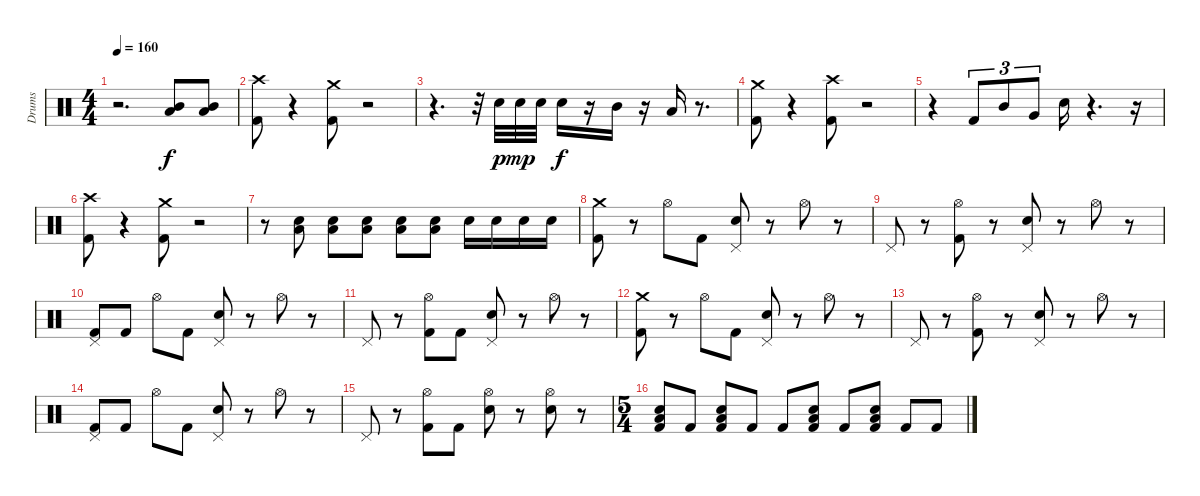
\track ("Drums" "Drums") {instrument percussion}
\staff {score}
\articulation defaults
\ts (4 4)
\tempo 160
\clef neutral
\ks c
r.2{d dy f} ("Mid Tom (hit)" "Low Floor Tom (hit)").8 ("Mid Tom (hit)" "Low Floor Tom (hit)").8 |
("Crash high (hit)" "Kick (hit) 2").8 r.4 ("Crash medium (hit)" "Kick (hit) 2").8 r.2 |
r.4{d} r.32 "Electric Snare (hit)".32{dy p} "Electric Snare (hit)".32{dy mp} "Electric Snare (hit)".32 "Electric Snare (hit)".16{dy f} r.16 "Mid Tom (hit)".16 r.16 "Low Tom (hit)".16 r.8{d} |
("Crash medium (hit)" "Kick (hit) 2").8 r.4 ("Crash high (hit)" "Kick (hit) 2").8 r.2 |
r.4 "Kick (hit) 2".8{tu (3 2)} "Mid Tom (hit)".8{tu (3 2)} "Very Low Tom (hit)".8{tu (3 2)} "Electric Snare (hit)".16 r.4{d} r.16 |
("Crash high (hit)" "Kick (hit) 2").8 r.4 ("Crash medium (hit)" "Kick (hit) 2").8 r.2 |
r.8 ("Low Tom (hit)" "Electric Snare (hit)").8{volume 6} ("Low Tom (hit)" "Electric Snare (hit)").8{volume 8} ("Low Tom (hit)" "Electric Snare (hit)").8{volume 9} ("Low Tom (hit)" "Electric Snare (hit)").8{volume 10} ("Low Tom (hit)" "Electric Snare (hit)").8{volume 12} "Electric Snare (hit)".16{volume 13} "Electric Snare (hit)".16{volume 14} "Electric Snare (hit)".16{volume 14} "Electric Snare (hit)".16{volume 15} |
("Crash medium (hit)" "Kick (hit) 2").8{volume 16} r.8 "Hi-Hat (open)".8 "Kick (hit) 2".8 ("Pedal Hi-Hat (hit)" "Electric Snare (hit)").8 r.8 "Hi-Hat (open)".8 r.8 |
"Pedal Hi-Hat (hit)".8 r.8 ("Hi-Hat (open)" "Kick (hit) 2").8 r.8 ("Pedal Hi-Hat (hit)" "Electric Snare (hit)").8 r.8 "Hi-Hat (open)".8 r.8 |
("Pedal Hi-Hat (hit)" "Kick (hit) 2").8 "Kick (hit) 2".8 "Hi-Hat (open)".8 "Kick (hit) 2".8 ("Pedal Hi-Hat (hit)" "Electric Snare (hit)").8 r.8 "Hi-Hat (open)".8 r.8 |
"Pedal Hi-Hat (hit)".8 r.8 ("Hi-Hat (open)" "Kick (hit) 2").8 "Kick (hit) 2".8 ("Pedal Hi-Hat (hit)" "Electric Snare (hit)").8 r.8 "Hi-Hat (open)".8 r.8 |
("Crash medium (hit)" "Kick (hit) 2").8 r.8 "Hi-Hat (open)".8 "Kick (hit) 2".8 ("Pedal Hi-Hat (hit)" "Electric Snare (hit)").8 r.8 "Hi-Hat (open)".8 r.8 |
"Pedal Hi-Hat (hit)".8 r.8 ("Hi-Hat (open)" "Kick (hit) 2").8 r.8 ("Pedal Hi-Hat (hit)" "Electric Snare (hit)").8 r.8 "Hi-Hat (open)".8 r.8 |
("Pedal Hi-Hat (hit)" "Kick (hit) 2").8 "Kick (hit) 2".8 "Hi-Hat (open)".8 "Kick (hit) 2".8 ("Pedal Hi-Hat (hit)" "Electric Snare (hit)").8 r.8 "Hi-Hat (open)".8 r.8 |
"Pedal Hi-Hat (hit)".8 r.8 ("Hi-Hat (open)" "Kick (hit) 2").8 "Kick (hit) 2".8 ("Hi-Hat (open)" "Electric Snare (hit)").8 r.8 ("Electric Snare (hit)" "Hi-Hat (open)").8 r.8 |
\ts (5 4)
("Low Tom (hit)" "Electric Snare (hit)" "Kick (hit) 2").8 "Kick (hit) 2".8 ("Low Tom (hit)" "Electric Snare (hit)" "Kick (hit) 2").8 "Kick (hit) 2".8 "Kick (hit) 2".8 ("Low Tom (hit)" "Electric Snare (hit)" "Kick (hit) 2").8 "Kick (hit) 2".8 ("Low Tom (hit)" "Electric Snare (hit)" "Kick (hit) 2").8 "Kick (hit) 2".8 "Kick (hit) 2".8
